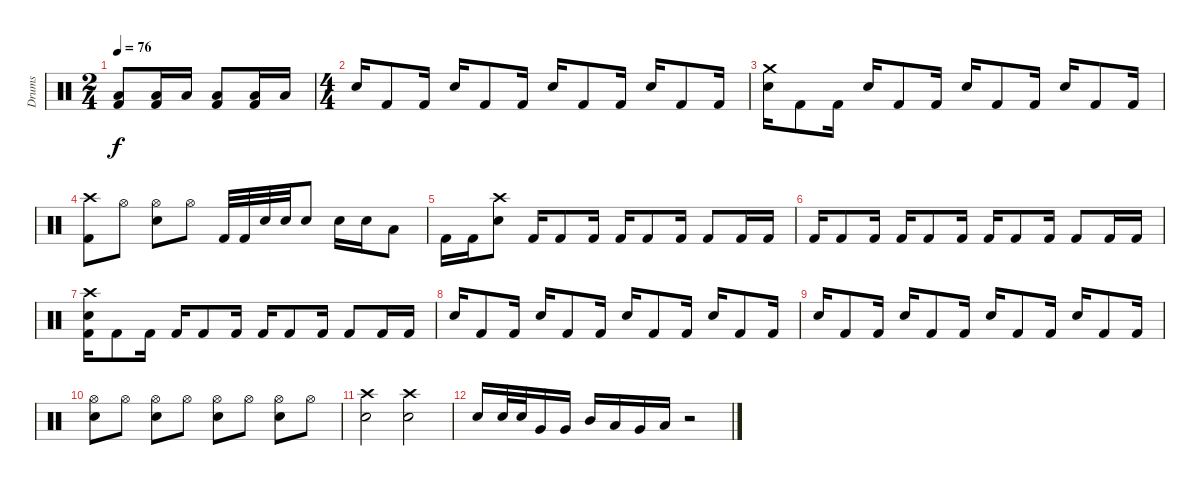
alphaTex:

\track ("Drums" "Drums") {instrument percussion}
\staff {score}
\articulation defaults
\ts (2 4)
\tempo 76
\clef neutral
\ks c
("Kick (hit) 2" "Low Floor Tom (hit)").8{dy f} ("Kick (hit) 2" "Low Floor Tom (hit)").16 "Low Floor Tom (hit)".16 ("Kick (hit) 2" "Low Floor Tom (hit)").8 ("Kick (hit) 2" "Low Floor Tom (hit)").16 "Low Floor Tom (hit)".16 |
\ts (4 4)
"Snare (hit) 2".16 "Kick (hit) 2".8 "Kick (hit) 2".16 "Snare (hit) 2".16 "Kick (hit) 2".8 "Kick (hit) 2".16 "Snare (hit) 2".16 "Kick (hit) 2".8 "Kick (hit) 2".16 "Snare (hit) 2".16 "Kick (hit) 2".8 "Kick (hit) 2".16 |
("Crash medium (hit)" "Snare (hit) 2").16 "Kick (hit) 2".8 "Kick (hit) 2".16 "Snare (hit) 2".16 "Kick (hit) 2".8 "Kick (hit) 2".16 "Snare (hit) 2".16 "Kick (hit) 2".8 "Kick (hit) 2".16 "Snare (hit) 2".16 "Kick (hit) 2".8 "Kick (hit) 2".16 |
("Crash high (hit)" "Kick (hit) 2").8 "Hi-Hat (open)".8 ("Snare (hit) 2" "Hi-Hat (open)").8 "Hi-Hat (open)".8 "Kick (hit) 2".32 "Kick (hit) 2".32 "Snare (hit) 2".32 "Snare (hit) 2".32 "Snare (hit) 2".8 "Snare (hit) 2".16 "Snare (hit) 2".16 "Low Tom (hit)".8 |
"Kick (hit) 2".16 "Kick (hit) 2".16 ("Snare (hit) 2" "Crash high (hit)").8 "Kick (hit) 2".16 "Kick (hit) 2".8 "Kick (hit) 2".16 "Kick (hit) 2".16 "Kick (hit) 2".8 "Kick (hit) 2".16 "Kick (hit) 2".8 "Kick (hit) 2".16 "Kick (hit) 2".16 |
"Kick (hit) 2".16 "Kick (hit) 2".8 "Kick (hit) 2".16 "Kick (hit) 2".16 "Kick (hit) 2".8 "Kick (hit) 2".16 "Kick (hit) 2".16 "Kick (hit) 2".8 "Kick (hit) 2".16 "Kick (hit) 2".8 "Kick (hit) 2".16 "Kick (hit) 2".16 |
("Crash high (hit)" "Snare (hit) 2" "Kick (hit) 2").16 "Kick (hit) 2".8 "Kick (hit) 2".16 "Kick (hit) 2".16 "Kick (hit) 2".8 "Kick (hit) 2".16 "Kick (hit) 2".16 "Kick (hit) 2".8 "Kick (hit) 2".16 "Kick (hit) 2".8 "Kick (hit) 2".16 "Kick (hit) 2".16 |
"Snare (hit) 2".16 "Kick (hit) 2".8 "Kick (hit) 2".16 "Snare (hit) 2".16 "Kick (hit) 2".8 "Kick (hit) 2".16 "Snare (hit) 2".16 "Kick (hit) 2".8 "Kick (hit) 2".16 "Snare (hit) 2".16 "Kick (hit) 2".8 "Kick (hit) 2".16 |
"Snare (hit) 2".16 "Kick (hit) 2".8 "Kick (hit) 2".16 "Snare (hit) 2".16 "Kick (hit) 2".8 "Kick (hit) 2".16 "Snare (hit) 2".16 "Kick (hit) 2".8 "Kick (hit) 2".16 "Snare (hit) 2".16 "Kick (hit) 2".8 "Kick (hit) 2".16 |
("Snare (hit) 2" "Hi-Hat (open)").8 "Hi-Hat (open)".8 ("Hi-Hat (open)" "Snare (hit) 2").8 "Hi-Hat (open)".8 ("Snare (hit) 2" "Hi-Hat (open)").8 "Hi-Hat (open)".8 ("Snare (hit) 2" "Hi-Hat (open)").8 "Hi-Hat (open)".8 |
("Snare (hit) 2" "Crash high (hit)").2 ("Snare (hit) 2" "Crash high (hit)").2 |
"Snare (hit) 2".16 "Snare (hit) 2".32 "Snare (hit) 2".32 "Very Low Tom (hit)".16 "Very Low Tom (hit)".16 "Mid Tom (hit)".16 "Low Tom (hit)".16 "Very Low Tom (hit)".16 "Low Floor Tom (hit)".16 r.2
